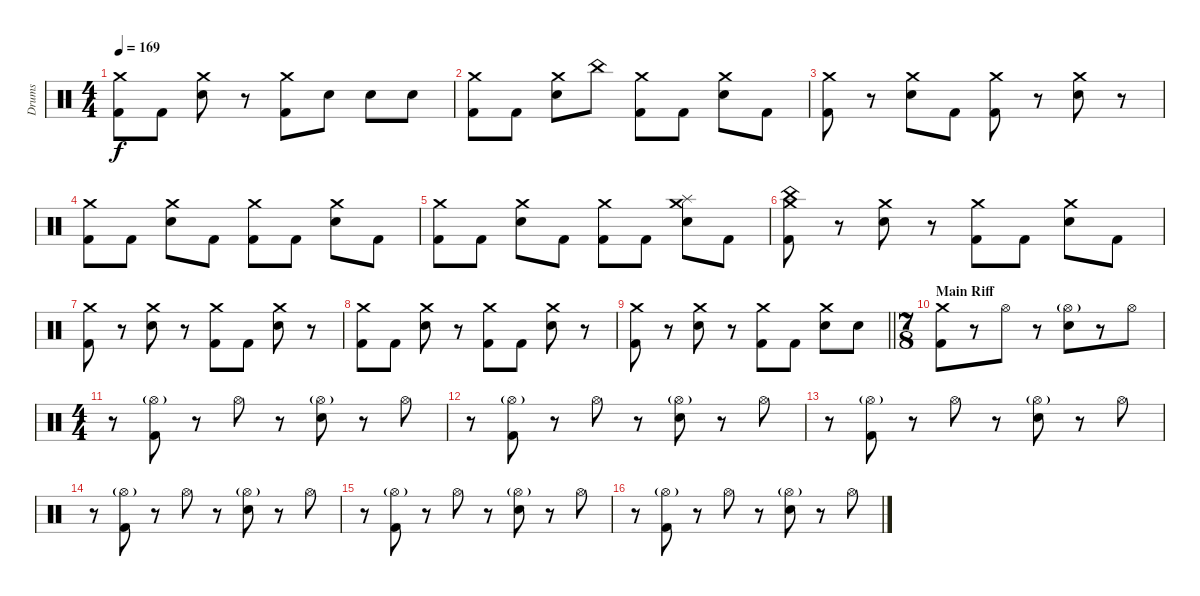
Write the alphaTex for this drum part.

\track ("Drums" "Drums") {instrument percussion}
\staff {score}
\articulation defaults
\ts (4 4)
\tempo 169
\clef neutral
\ks c
("Crash medium (hit)" "Kick (hit) 2").8{dy f} "Kick (hit) 2".8 ("Crash medium (hit)" "Electric Snare (hit)").8 r.8 ("Crash medium (hit)" "Kick (hit) 2").8 "Electric Snare (hit)".8 "Electric Snare (hit)".8 "Electric Snare (hit)".8 |
("Crash medium (hit)" "Kick (hit) 2").8 "Kick (hit) 2".8 ("Crash medium (hit)" "Electric Snare (hit)").8 "China (hit)".8 ("Crash medium (hit)" "Kick (hit) 2").8 "Kick (hit) 2".8 ("Crash medium (hit)" "Electric Snare (hit)").8 "Kick (hit) 2".8 |
("Crash medium (hit)" "Kick (hit) 2").8 r.8 ("Crash medium (hit)" "Electric Snare (hit)").8 "Kick (hit) 2".8 ("Crash medium (hit)" "Kick (hit) 2").8 r.8 ("Crash medium (hit)" "Electric Snare (hit)").8 r.8 |
("Crash medium (hit)" "Kick (hit) 2").8 "Kick (hit) 2".8 ("Crash medium (hit)" "Electric Snare (hit)").8 "Kick (hit) 2".8 ("Crash medium (hit)" "Kick (hit) 2").8 "Kick (hit) 2".8 ("Crash medium (hit)" "Electric Snare (hit)").8 "Kick (hit) 2".8 |
("Crash medium (hit)" "Kick (hit) 2").8 "Kick (hit) 2".8 ("Crash medium (hit)" "Electric Snare (hit)").8 "Kick (hit) 2".8 ("Crash medium (hit)" "Kick (hit) 2").8 "Kick (hit) 2".8 ("Crash medium (hit)" "Splash (hit)" "Electric Snare (hit)").8 "Kick (hit) 2".8 |
("Crash medium (hit)" "China (hit)" "Kick (hit) 2").8 r.8 ("Crash medium (hit)" "Electric Snare (hit)").8 r.8 ("Crash medium (hit)" "Kick (hit) 2").8 "Kick (hit) 2".8 ("Crash medium (hit)" "Electric Snare (hit)").8 "Kick (hit) 2".8 |
("Crash medium (hit)" "Kick (hit) 2").8 r.8 ("Crash medium (hit)" "Electric Snare (hit)").8 r.8 ("Crash medium (hit)" "Kick (hit) 2").8 "Kick (hit) 2".8 ("Crash medium (hit)" "Electric Snare (hit)").8 r.8 |
("Crash medium (hit)" "Kick (hit) 2").8 "Kick (hit) 2".8 ("Crash medium (hit)" "Electric Snare (hit)").8 r.8 ("Crash medium (hit)" "Kick (hit) 2").8 "Kick (hit) 2".8 ("Crash medium (hit)" "Electric Snare (hit)").8 r.8 |
\barLineRight lightlight
("Crash medium (hit)" "Kick (hit) 2").8 r.8 ("Crash medium (hit)" "Electric Snare (hit)").8 r.8 ("Crash medium (hit)" "Kick (hit) 2").8 "Kick (hit) 2".8 ("Crash medium (hit)" "Electric Snare (hit)").8 "Electric Snare (hit)".8 |
\ts (7 8)
\section ("" "Main Riff")
("Crash medium (hit)" "Kick (hit) 2").8 r.8 "Hi-Hat (open)".8 r.8 ("Hi-Hat (open)"{g} "Electric Snare (hit)").8 r.8 "Hi-Hat (open)".8 |
\ts (4 4)
r.8 ("Hi-Hat (open)"{g} "Kick (hit) 2").8 r.8 "Hi-Hat (open)".8 r.8 ("Hi-Hat (open)"{g} "Electric Snare (hit)").8 r.8 "Hi-Hat (open)".8 |
r.8 ("Hi-Hat (open)"{g} "Kick (hit) 2").8 r.8 "Hi-Hat (open)".8 r.8 ("Hi-Hat (open)"{g} "Electric Snare (hit)").8 r.8 "Hi-Hat (open)".8 |
r.8 ("Hi-Hat (open)"{g} "Kick (hit) 2").8 r.8 "Hi-Hat (open)".8 r.8 ("Hi-Hat (open)"{g} "Electric Snare (hit)").8 r.8 "Hi-Hat (open)".8 |
r.8 ("Hi-Hat (open)"{g} "Kick (hit) 2").8 r.8 "Hi-Hat (open)".8 r.8 ("Hi-Hat (open)"{g} "Electric Snare (hit)").8 r.8 "Hi-Hat (open)".8 |
r.8 ("Hi-Hat (open)"{g} "Kick (hit) 2").8 r.8 "Hi-Hat (open)".8 r.8 ("Hi-Hat (open)"{g} "Electric Snare (hit)").8 r.8 "Hi-Hat (open)".8 |
r.8 ("Hi-Hat (open)"{g} "Kick (hit) 2").8 r.8 "Hi-Hat (open)".8 r.8 ("Hi-Hat (open)"{g} "Electric Snare (hit)").8 r.8 "Hi-Hat (open)".8
